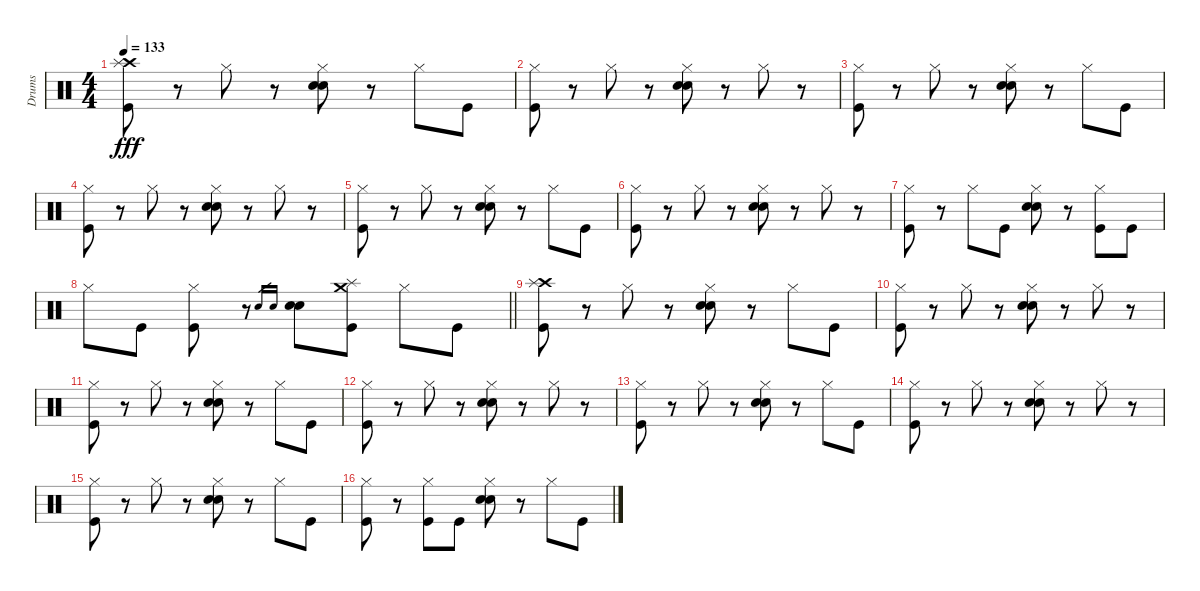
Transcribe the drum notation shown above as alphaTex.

\track ("Drums" "Drums") {instrument percussion}
\staff {score}
\articulation defaults
\ts (4 4)
\tempo 133
\clef neutral
\ks c
("Crash high (hit)" "Splash (hit)" "Kick (hit)").8{dy fff} r.8 "Hi-Hat (closed)".8 r.8 ("Hi-Hat (closed)" "Electric Snare (hit)" "Snare (hit) 2").8 r.8 "Hi-Hat (closed)".8 "Kick (hit)".8 |
("Hi-Hat (closed)" "Kick (hit)").8 r.8 "Hi-Hat (closed)".8 r.8 ("Hi-Hat (closed)" "Electric Snare (hit)" "Snare (hit) 2").8 r.8 "Hi-Hat (closed)".8 r.8 |
("Hi-Hat (closed)" "Kick (hit)").8 r.8 "Hi-Hat (closed)".8 r.8 ("Hi-Hat (closed)" "Electric Snare (hit)" "Snare (hit) 2").8 r.8 "Hi-Hat (closed)".8 "Kick (hit)".8 |
("Hi-Hat (closed)" "Kick (hit)").8 r.8 "Hi-Hat (closed)".8 r.8 ("Hi-Hat (closed)" "Electric Snare (hit)" "Snare (hit) 2").8 r.8 "Hi-Hat (closed)".8 r.8 |
("Hi-Hat (closed)" "Kick (hit)").8 r.8 "Hi-Hat (closed)".8 r.8 ("Hi-Hat (closed)" "Electric Snare (hit)" "Snare (hit) 2").8 r.8 "Hi-Hat (closed)".8 "Kick (hit)".8 |
("Hi-Hat (closed)" "Kick (hit)").8 r.8 "Hi-Hat (closed)".8 r.8 ("Hi-Hat (closed)" "Electric Snare (hit)" "Snare (hit) 2").8 r.8 "Hi-Hat (closed)".8 r.8 |
("Hi-Hat (closed)" "Kick (hit)").8 r.8 "Hi-Hat (closed)".8 "Kick (hit)".8 ("Hi-Hat (closed)" "Electric Snare (hit)" "Snare (hit) 2").8 r.8 ("Hi-Hat (closed)" "Kick (hit)").8 "Kick (hit)".8 |
\barLineRight lightlight "Hi-Hat (closed)".8 "Kick (hit)".8
("Hi-Hat (closed)" "Kick (hit)").8 r.8 "Electric Snare (hit)".16{gr} "Snare (hit) 2".16{gr} ("Electric Snare (hit)" "Snare (hit) 2").8 ("Crash medium (hit)" "Splash (hit)" "Kick (hit)").8 "Hi-Hat (closed)".8 "Kick (hit)".8 |
("Crash high (hit)" "Splash (hit)" "Kick (hit)").8 r.8 "Hi-Hat (closed)".8 r.8 ("Hi-Hat (closed)" "Electric Snare (hit)" "Snare (hit) 2").8 r.8 "Hi-Hat (closed)".8 "Kick (hit)".8 |
("Hi-Hat (closed)" "Kick (hit)").8 r.8 "Hi-Hat (closed)".8 r.8 ("Hi-Hat (closed)" "Electric Snare (hit)" "Snare (hit) 2").8 r.8 "Hi-Hat (closed)".8 r.8 |
("Hi-Hat (closed)" "Kick (hit)").8 r.8 "Hi-Hat (closed)".8 r.8 ("Hi-Hat (closed)" "Electric Snare (hit)" "Snare (hit) 2").8 r.8 "Hi-Hat (closed)".8 "Kick (hit)".8 |
("Hi-Hat (closed)" "Kick (hit)").8 r.8 "Hi-Hat (closed)".8 r.8 ("Hi-Hat (closed)" "Electric Snare (hit)" "Snare (hit) 2").8 r.8 "Hi-Hat (closed)".8 r.8 |
("Hi-Hat (closed)" "Kick (hit)").8 r.8 "Hi-Hat (closed)".8 r.8 ("Hi-Hat (closed)" "Electric Snare (hit)" "Snare (hit) 2").8 r.8 "Hi-Hat (closed)".8 "Kick (hit)".8 |
("Hi-Hat (closed)" "Kick (hit)").8 r.8 "Hi-Hat (closed)".8 r.8 ("Hi-Hat (closed)" "Electric Snare (hit)" "Snare (hit) 2").8 r.8 "Hi-Hat (closed)".8 r.8 |
("Hi-Hat (closed)" "Kick (hit)").8 r.8 "Hi-Hat (closed)".8 r.8 ("Hi-Hat (closed)" "Electric Snare (hit)" "Snare (hit) 2").8 r.8 "Hi-Hat (closed)".8 "Kick (hit)".8 |
("Hi-Hat (closed)" "Kick (hit)").8 r.8 ("Hi-Hat (closed)" "Kick (hit)").8 "Kick (hit)".8 ("Hi-Hat (closed)" "Electric Snare (hit)" "Snare (hit) 2").8 r.8 "Hi-Hat (closed)".8 "Kick (hit)".8
